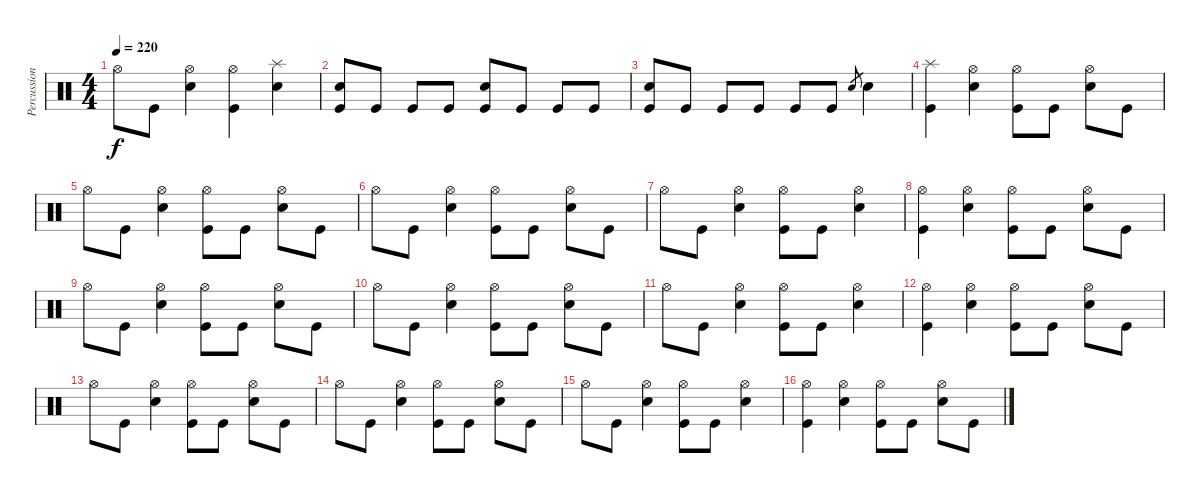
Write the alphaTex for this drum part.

\track ("Percussions" "Percussion") {instrument percussion}
\staff {score}
\articulation defaults
\ts (4 4)
\tempo 220
\clef neutral
\ks c "Hi-Hat (open)".8{dy f} "Kick (hit)".8
("Electric Snare (hit)" "Hi-Hat (open)").4 ("Kick (hit)" "Hi-Hat (open)").4 ("Electric Snare (hit)" "Splash (hit)").4 |
("Kick (hit)" "Electric Snare (hit)").8 "Kick (hit)".8 "Kick (hit)".8 "Kick (hit)".8 ("Kick (hit)" "Electric Snare (hit)").8 "Kick (hit)".8 "Kick (hit)".8 "Kick (hit)".8 |
("Kick (hit)" "Electric Snare (hit)").8 "Kick (hit)".8 "Kick (hit)".8 "Kick (hit)".8 "Kick (hit)".8 "Kick (hit)".8 "Electric Snare (hit)".8{gr} "Electric Snare (hit)".4 |
("Kick (hit)" "Splash (hit)").4 ("Electric Snare (hit)" "Hi-Hat (open)").4 ("Kick (hit)" "Hi-Hat (open)").8 "Kick (hit)".8 ("Electric Snare (hit)" "Hi-Hat (open)").8 "Kick (hit)".8 |
"Hi-Hat (open)".8 "Kick (hit)".8 ("Electric Snare (hit)" "Hi-Hat (open)").4 ("Kick (hit)" "Hi-Hat (open)").8 "Kick (hit)".8 ("Electric Snare (hit)" "Hi-Hat (open)").8 "Kick (hit)".8 |
"Hi-Hat (open)".8 "Kick (hit)".8 ("Electric Snare (hit)" "Hi-Hat (open)").4 ("Kick (hit)" "Hi-Hat (open)").8 "Kick (hit)".8 ("Electric Snare (hit)" "Hi-Hat (open)").8 "Kick (hit)".8 |
"Hi-Hat (open)".8 "Kick (hit)".8 ("Electric Snare (hit)" "Hi-Hat (open)").4 ("Kick (hit)" "Hi-Hat (open)").8 "Kick (hit)".8 ("Electric Snare (hit)" "Hi-Hat (open)").4 |
("Kick (hit)" "Hi-Hat (open)").4 ("Electric Snare (hit)" "Hi-Hat (open)").4 ("Kick (hit)" "Hi-Hat (open)").8 "Kick (hit)".8 ("Electric Snare (hit)" "Hi-Hat (open)").8 "Kick (hit)".8 |
"Hi-Hat (open)".8 "Kick (hit)".8 ("Electric Snare (hit)" "Hi-Hat (open)").4 ("Kick (hit)" "Hi-Hat (open)").8 "Kick (hit)".8 ("Electric Snare (hit)" "Hi-Hat (open)").8 "Kick (hit)".8 |
"Hi-Hat (open)".8 "Kick (hit)".8 ("Electric Snare (hit)" "Hi-Hat (open)").4 ("Kick (hit)" "Hi-Hat (open)").8 "Kick (hit)".8 ("Electric Snare (hit)" "Hi-Hat (open)").8 "Kick (hit)".8 |
"Hi-Hat (open)".8 "Kick (hit)".8 ("Electric Snare (hit)" "Hi-Hat (open)").4 ("Kick (hit)" "Hi-Hat (open)").8 "Kick (hit)".8 ("Electric Snare (hit)" "Hi-Hat (open)").4 |
("Kick (hit)" "Hi-Hat (open)").4 ("Electric Snare (hit)" "Hi-Hat (open)").4 ("Kick (hit)" "Hi-Hat (open)").8 "Kick (hit)".8 ("Electric Snare (hit)" "Hi-Hat (open)").8 "Kick (hit)".8 |
"Hi-Hat (open)".8 "Kick (hit)".8 ("Electric Snare (hit)" "Hi-Hat (open)").4 ("Kick (hit)" "Hi-Hat (open)").8 "Kick (hit)".8 ("Electric Snare (hit)" "Hi-Hat (open)").8 "Kick (hit)".8 |
"Hi-Hat (open)".8 "Kick (hit)".8 ("Electric Snare (hit)" "Hi-Hat (open)").4 ("Kick (hit)" "Hi-Hat (open)").8 "Kick (hit)".8 ("Electric Snare (hit)" "Hi-Hat (open)").8 "Kick (hit)".8 |
"Hi-Hat (open)".8 "Kick (hit)".8 ("Electric Snare (hit)" "Hi-Hat (open)").4 ("Kick (hit)" "Hi-Hat (open)").8 "Kick (hit)".8 ("Electric Snare (hit)" "Hi-Hat (open)").4 |
("Kick (hit)" "Hi-Hat (open)").4 ("Electric Snare (hit)" "Hi-Hat (open)").4 ("Kick (hit)" "Hi-Hat (open)").8 "Kick (hit)".8 ("Electric Snare (hit)" "Hi-Hat (open)").8 "Kick (hit)".8
